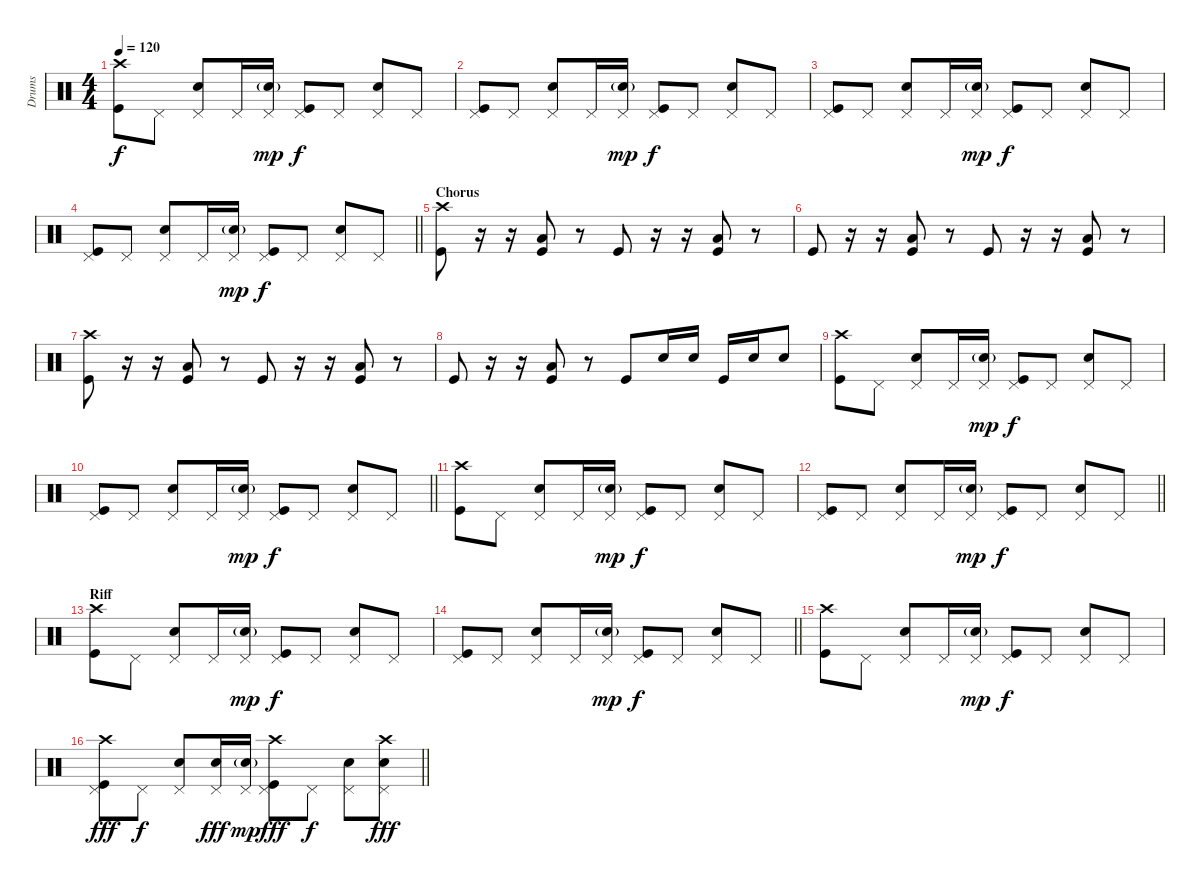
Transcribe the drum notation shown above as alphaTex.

\track ("Drums" "Drums") {instrument percussion}
\staff {score}
\articulation defaults
\ts (4 4)
\tempo 120
\clef neutral
\ks c
("Crash high (hit)" "Kick (hit)").8{dy f} "Pedal Hi-Hat (hit)".8 ("Snare (hit) 2" "Pedal Hi-Hat (hit)").8 "Pedal Hi-Hat (hit)".16 ("Snare (hit) 2"{g} "Pedal Hi-Hat (hit)").16{dy mp} ("Kick (hit)" "Pedal Hi-Hat (hit)").8{dy f} "Pedal Hi-Hat (hit)".8 ("Snare (hit) 2" "Pedal Hi-Hat (hit)").8 "Pedal Hi-Hat (hit)".8 |
("Kick (hit)" "Pedal Hi-Hat (hit)").8 "Pedal Hi-Hat (hit)".8 ("Snare (hit) 2" "Pedal Hi-Hat (hit)").8 "Pedal Hi-Hat (hit)".16 ("Snare (hit) 2"{g} "Pedal Hi-Hat (hit)").16{dy mp} ("Kick (hit)" "Pedal Hi-Hat (hit)").8{dy f} "Pedal Hi-Hat (hit)".8 ("Snare (hit) 2" "Pedal Hi-Hat (hit)").8 "Pedal Hi-Hat (hit)".8 |
("Kick (hit)" "Pedal Hi-Hat (hit)").8 "Pedal Hi-Hat (hit)".8 ("Snare (hit) 2" "Pedal Hi-Hat (hit)").8 "Pedal Hi-Hat (hit)".16 ("Snare (hit) 2"{g} "Pedal Hi-Hat (hit)").16{dy mp} ("Kick (hit)" "Pedal Hi-Hat (hit)").8{dy f} "Pedal Hi-Hat (hit)".8 ("Snare (hit) 2" "Pedal Hi-Hat (hit)").8 "Pedal Hi-Hat (hit)".8 |
\barLineRight lightlight
("Kick (hit)" "Pedal Hi-Hat (hit)").8 "Pedal Hi-Hat (hit)".8 ("Snare (hit) 2" "Pedal Hi-Hat (hit)").8 "Pedal Hi-Hat (hit)".16 ("Snare (hit) 2"{g} "Pedal Hi-Hat (hit)").16{dy mp} ("Kick (hit)" "Pedal Hi-Hat (hit)").8{dy f} "Pedal Hi-Hat (hit)".8 ("Snare (hit) 2" "Pedal Hi-Hat (hit)").8 "Pedal Hi-Hat (hit)".8 |
\section ("" "Chorus")
("Kick (hit)" "Crash high (hit)").8 r.16 r.16 ("Kick (hit)" "Low Tom (hit)").8 r.8 "Kick (hit)".8 r.16 r.16 ("Kick (hit)" "Low Tom (hit)").8 r.8 |
"Kick (hit)".8 r.16 r.16 ("Kick (hit)" "Low Tom (hit)").8 r.8 "Kick (hit)".8 r.16 r.16 ("Kick (hit)" "Low Tom (hit)").8 r.8 |
("Kick (hit)" "Crash high (hit)").8 r.16 r.16 ("Kick (hit)" "Low Tom (hit)").8 r.8 "Kick (hit)".8 r.16 r.16 ("Kick (hit)" "Low Tom (hit)").8 r.8 |
"Kick (hit)".8 r.16 r.16 ("Kick (hit)" "Low Tom (hit)").8 r.8 "Kick (hit)".8 "Snare (hit) 2".16 "Snare (hit) 2".16 "Kick (hit)".16 "Snare (hit) 2".16 "Snare (hit) 2".8 |
("Crash high (hit)" "Kick (hit)").8 "Pedal Hi-Hat (hit)".8 ("Snare (hit) 2" "Pedal Hi-Hat (hit)").8 "Pedal Hi-Hat (hit)".16 ("Snare (hit) 2"{g} "Pedal Hi-Hat (hit)").16{dy mp} ("Kick (hit)" "Pedal Hi-Hat (hit)").8{dy f} "Pedal Hi-Hat (hit)".8 ("Snare (hit) 2" "Pedal Hi-Hat (hit)").8 "Pedal Hi-Hat (hit)".8 |
\barLineRight lightlight
("Kick (hit)" "Pedal Hi-Hat (hit)").8 "Pedal Hi-Hat (hit)".8 ("Snare (hit) 2" "Pedal Hi-Hat (hit)").8 "Pedal Hi-Hat (hit)".16 ("Snare (hit) 2"{g} "Pedal Hi-Hat (hit)").16{dy mp} ("Kick (hit)" "Pedal Hi-Hat (hit)").8{dy f} "Pedal Hi-Hat (hit)".8 ("Snare (hit) 2" "Pedal Hi-Hat (hit)").8 "Pedal Hi-Hat (hit)".8 |
("Crash high (hit)" "Kick (hit)").8 "Pedal Hi-Hat (hit)".8 ("Snare (hit) 2" "Pedal Hi-Hat (hit)").8 "Pedal Hi-Hat (hit)".16 ("Snare (hit) 2"{g} "Pedal Hi-Hat (hit)").16{dy mp} ("Kick (hit)" "Pedal Hi-Hat (hit)").8{dy f} "Pedal Hi-Hat (hit)".8 ("Snare (hit) 2" "Pedal Hi-Hat (hit)").8 "Pedal Hi-Hat (hit)".8 |
\barLineRight lightlight
("Kick (hit)" "Pedal Hi-Hat (hit)").8 "Pedal Hi-Hat (hit)".8 ("Snare (hit) 2" "Pedal Hi-Hat (hit)").8 "Pedal Hi-Hat (hit)".16 ("Snare (hit) 2"{g} "Pedal Hi-Hat (hit)").16{dy mp} ("Kick (hit)" "Pedal Hi-Hat (hit)").8{dy f} "Pedal Hi-Hat (hit)".8 ("Snare (hit) 2" "Pedal Hi-Hat (hit)").8 "Pedal Hi-Hat (hit)".8 |
\section ("" "Riff")
("Crash high (hit)" "Kick (hit)").8 "Pedal Hi-Hat (hit)".8 ("Snare (hit) 2" "Pedal Hi-Hat (hit)").8 "Pedal Hi-Hat (hit)".16 ("Snare (hit) 2"{g} "Pedal Hi-Hat (hit)").16{dy mp} ("Kick (hit)" "Pedal Hi-Hat (hit)").8{dy f} "Pedal Hi-Hat (hit)".8 ("Snare (hit) 2" "Pedal Hi-Hat (hit)").8 "Pedal Hi-Hat (hit)".8 |
\barLineRight lightlight
("Kick (hit)" "Pedal Hi-Hat (hit)").8 "Pedal Hi-Hat (hit)".8 ("Snare (hit) 2" "Pedal Hi-Hat (hit)").8 "Pedal Hi-Hat (hit)".16 ("Snare (hit) 2"{g} "Pedal Hi-Hat (hit)").16{dy mp} ("Kick (hit)" "Pedal Hi-Hat (hit)").8{dy f} "Pedal Hi-Hat (hit)".8 ("Snare (hit) 2" "Pedal Hi-Hat (hit)").8 "Pedal Hi-Hat (hit)".8 |
("Crash high (hit)" "Kick (hit)").8 "Pedal Hi-Hat (hit)".8 ("Snare (hit) 2" "Pedal Hi-Hat (hit)").8 "Pedal Hi-Hat (hit)".16 ("Snare (hit) 2"{g} "Pedal Hi-Hat (hit)").16{dy mp} ("Kick (hit)" "Pedal Hi-Hat (hit)").8{dy f} "Pedal Hi-Hat (hit)".8 ("Snare (hit) 2" "Pedal Hi-Hat (hit)").8 "Pedal Hi-Hat (hit)".8 |
\barLineRight lightlight
("Crash high (hit)" "Kick (hit)" "Pedal Hi-Hat (hit)").8{dy fff} "Pedal Hi-Hat (hit)".8{dy f} ("Snare (hit) 2" "Pedal Hi-Hat (hit)").8 ("Snare (hit) 2" "Pedal Hi-Hat (hit)").16{dy fff} ("Snare (hit) 2"{g} "Pedal Hi-Hat (hit)").16{dy mp} ("Crash high (hit)" "Kick (hit)" "Pedal Hi-Hat (hit)").8{dy fff} "Pedal Hi-Hat (hit)".8{dy f} ("Snare (hit) 2" "Pedal Hi-Hat (hit)").8 ("Crash high (hit)" "Snare (hit) 2" "Pedal Hi-Hat (hit)").8{dy fff}
